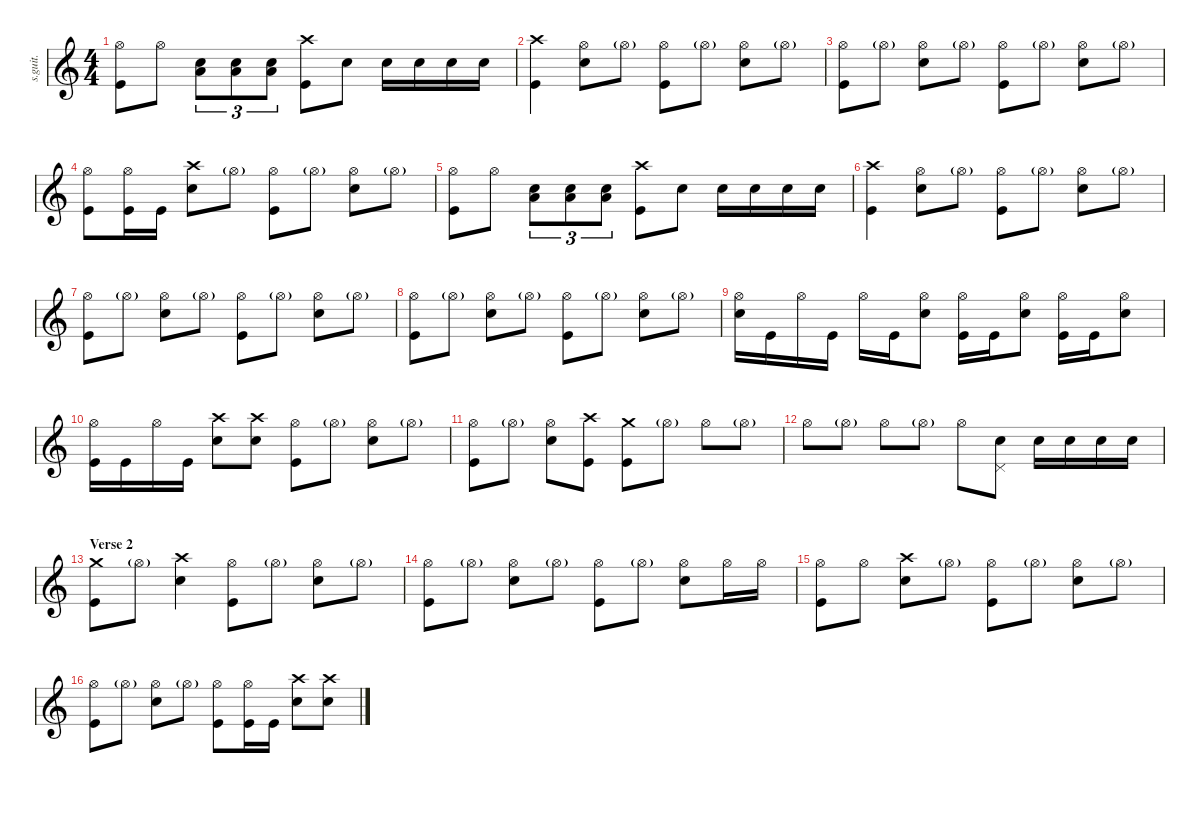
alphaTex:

\defaultSystemsLayout 4
\hideDynamics
\bracketExtendMode nobrackets
\track ("Lars Ulrich" "s.guit.") {instrument percussion}
\staff {score}
\articulation defaults
\ts (4 4)
\tempo (87 hide)
\clef g2
\ks c
("Hi-Hat (open)" "Kick (hit)").8{lyrics (0 "") lyrics (1 "") lyrics (2 "") lyrics (3 "") lyrics (4 "") dy f} "Hi-Hat (open)".8{lyrics (0 "") lyrics (1 "") lyrics (2 "") lyrics (3 "") lyrics (4 "")} ("Low Floor Tom (hit)" "Snare (hit) 2").8{tu (3 2) lyrics (0 "") lyrics (1 "") lyrics (2 "") lyrics (3 "") lyrics (4 "")} ("Low Floor Tom (hit)" "Snare (hit) 2").8{tu (3 2) lyrics (0 "") lyrics (1 "") lyrics (2 "") lyrics (3 "") lyrics (4 "")} ("Low Floor Tom (hit)" "Snare (hit) 2").8{tu (3 2) lyrics (0 "") lyrics (1 "") lyrics (2 "") lyrics (3 "") lyrics (4 "")} ("Kick (hit)" "Crash high (hit)").8{lyrics (0 "") lyrics (1 "") lyrics (2 "") lyrics (3 "") lyrics (4 "")} "Snare (hit) 2".8{lyrics (0 "") lyrics (1 "") lyrics (2 "") lyrics (3 "") lyrics (4 "")} "Snare (hit) 2".16{lyrics (0 "") lyrics (1 "") lyrics (2 "") lyrics (3 "") lyrics (4 "")} "Snare (hit) 2".16{lyrics (0 "") lyrics (1 "") lyrics (2 "") lyrics (3 "") lyrics (4 "")} "Snare (hit) 2".16{lyrics (0 "") lyrics (1 "") lyrics (2 "") lyrics (3 "") lyrics (4 "")} "Snare (hit) 2".16{lyrics (0 "") lyrics (1 "") lyrics (2 "") lyrics (3 "") lyrics (4 "")} |
\tempo (89 hide)
("Crash high (hit)" "Kick (hit)").4{lyrics (0 "") lyrics (1 "") lyrics (2 "") lyrics (3 "") lyrics (4 "")} ("Hi-Hat (open)" "Snare (hit) 2").8{lyrics (0 "") lyrics (1 "") lyrics (2 "") lyrics (3 "") lyrics (4 "")} "Hi-Hat (open)"{g}.8{lyrics (0 "") lyrics (1 "") lyrics (2 "") lyrics (3 "") lyrics (4 "") dy p} ("Hi-Hat (open)" "Kick (hit)").8{lyrics (0 "") lyrics (1 "") lyrics (2 "") lyrics (3 "") lyrics (4 "") dy f} "Hi-Hat (open)"{g}.8{lyrics (0 "") lyrics (1 "") lyrics (2 "") lyrics (3 "") lyrics (4 "") dy p} ("Hi-Hat (open)" "Snare (hit) 2").8{lyrics (0 "") lyrics (1 "") lyrics (2 "") lyrics (3 "") lyrics (4 "") dy f} "Hi-Hat (open)"{g}.8{lyrics (0 "") lyrics (1 "") lyrics (2 "") lyrics (3 "") lyrics (4 "") dy p} |
("Hi-Hat (open)" "Kick (hit)").8{lyrics (0 "") lyrics (1 "") lyrics (2 "") lyrics (3 "") lyrics (4 "") dy f} "Hi-Hat (open)"{g}.8{lyrics (0 "") lyrics (1 "") lyrics (2 "") lyrics (3 "") lyrics (4 "") dy p} ("Hi-Hat (open)" "Snare (hit) 2").8{lyrics (0 "") lyrics (1 "") lyrics (2 "") lyrics (3 "") lyrics (4 "") dy f} "Hi-Hat (open)"{g}.8{lyrics (0 "") lyrics (1 "") lyrics (2 "") lyrics (3 "") lyrics (4 "") dy p} ("Hi-Hat (open)" "Kick (hit)").8{lyrics (0 "") lyrics (1 "") lyrics (2 "") lyrics (3 "") lyrics (4 "") dy f} "Hi-Hat (open)"{g}.8{lyrics (0 "") lyrics (1 "") lyrics (2 "") lyrics (3 "") lyrics (4 "") dy p} ("Hi-Hat (open)" "Snare (hit) 2").8{lyrics (0 "") lyrics (1 "") lyrics (2 "") lyrics (3 "") lyrics (4 "") dy f} "Hi-Hat (open)"{g}.8{lyrics (0 "") lyrics (1 "") lyrics (2 "") lyrics (3 "") lyrics (4 "") dy p} |
\tempo (90 hide)
("Hi-Hat (open)" "Kick (hit)").8{lyrics (0 "") lyrics (1 "") lyrics (2 "") lyrics (3 "") lyrics (4 "") dy f} ("Hi-Hat (open)" "Kick (hit)").16{lyrics (0 "") lyrics (1 "") lyrics (2 "") lyrics (3 "") lyrics (4 "")} "Kick (hit)".16{lyrics (0 "") lyrics (1 "") lyrics (2 "") lyrics (3 "") lyrics (4 "")} ("Crash high (hit)" "Snare (hit) 2").8{lyrics (0 "") lyrics (1 "") lyrics (2 "") lyrics (3 "") lyrics (4 "")} "Hi-Hat (open)"{g}.8{lyrics (0 "") lyrics (1 "") lyrics (2 "") lyrics (3 "") lyrics (4 "") dy p} ("Hi-Hat (open)" "Kick (hit)").8{lyrics (0 "") lyrics (1 "") lyrics (2 "") lyrics (3 "") lyrics (4 "") dy f} "Hi-Hat (open)"{g}.8{lyrics (0 "") lyrics (1 "") lyrics (2 "") lyrics (3 "") lyrics (4 "") dy p} ("Hi-Hat (open)" "Snare (hit) 2").8{lyrics (0 "") lyrics (1 "") lyrics (2 "") lyrics (3 "") lyrics (4 "") dy f} "Hi-Hat (open)"{g}.8{lyrics (0 "") lyrics (1 "") lyrics (2 "") lyrics (3 "") lyrics (4 "") dy p} |
\tempo (86 hide)
("Hi-Hat (open)" "Kick (hit)").8{lyrics (0 "") lyrics (1 "") lyrics (2 "") lyrics (3 "") lyrics (4 "") dy f} "Hi-Hat (open)".8{lyrics (0 "") lyrics (1 "") lyrics (2 "") lyrics (3 "") lyrics (4 "")} ("Low Floor Tom (hit)" "Snare (hit) 2").8{tu (3 2) lyrics (0 "") lyrics (1 "") lyrics (2 "") lyrics (3 "") lyrics (4 "")} ("Low Floor Tom (hit)" "Snare (hit) 2").8{tu (3 2) lyrics (0 "") lyrics (1 "") lyrics (2 "") lyrics (3 "") lyrics (4 "")} ("Low Floor Tom (hit)" "Snare (hit) 2").8{tu (3 2) lyrics (0 "") lyrics (1 "") lyrics (2 "") lyrics (3 "") lyrics (4 "")} ("Kick (hit)" "Crash high (hit)").8{lyrics (0 "") lyrics (1 "") lyrics (2 "") lyrics (3 "") lyrics (4 "")} "Snare (hit) 2".8{lyrics (0 "") lyrics (1 "") lyrics (2 "") lyrics (3 "") lyrics (4 "")} "Snare (hit) 2".16{lyrics (0 "") lyrics (1 "") lyrics (2 "") lyrics (3 "") lyrics (4 "")} "Snare (hit) 2".16{lyrics (0 "") lyrics (1 "") lyrics (2 "") lyrics (3 "") lyrics (4 "")} "Snare (hit) 2".16{lyrics (0 "") lyrics (1 "") lyrics (2 "") lyrics (3 "") lyrics (4 "")} "Snare (hit) 2".16{lyrics (0 "") lyrics (1 "") lyrics (2 "") lyrics (3 "") lyrics (4 "")} |
\tempo (87 hide)
("Crash high (hit)" "Kick (hit)").4{lyrics (0 "") lyrics (1 "") lyrics (2 "") lyrics (3 "") lyrics (4 "")} ("Hi-Hat (open)" "Snare (hit) 2").8{lyrics (0 "") lyrics (1 "") lyrics (2 "") lyrics (3 "") lyrics (4 "")} "Hi-Hat (open)"{g}.8{lyrics (0 "") lyrics (1 "") lyrics (2 "") lyrics (3 "") lyrics (4 "") dy p} ("Hi-Hat (open)" "Kick (hit)").8{lyrics (0 "") lyrics (1 "") lyrics (2 "") lyrics (3 "") lyrics (4 "") dy f} "Hi-Hat (open)"{g}.8{lyrics (0 "") lyrics (1 "") lyrics (2 "") lyrics (3 "") lyrics (4 "") dy p} ("Hi-Hat (open)" "Snare (hit) 2").8{lyrics (0 "") lyrics (1 "") lyrics (2 "") lyrics (3 "") lyrics (4 "") dy f} "Hi-Hat (open)"{g}.8{lyrics (0 "") lyrics (1 "") lyrics (2 "") lyrics (3 "") lyrics (4 "") dy p} |
\tempo (89 hide)
("Hi-Hat (open)" "Kick (hit)").8{lyrics (0 "") lyrics (1 "") lyrics (2 "") lyrics (3 "") lyrics (4 "") dy f} "Hi-Hat (open)"{g}.8{lyrics (0 "") lyrics (1 "") lyrics (2 "") lyrics (3 "") lyrics (4 "") dy p} ("Hi-Hat (open)" "Snare (hit) 2").8{lyrics (0 "") lyrics (1 "") lyrics (2 "") lyrics (3 "") lyrics (4 "") dy f} "Hi-Hat (open)"{g}.8{lyrics (0 "") lyrics (1 "") lyrics (2 "") lyrics (3 "") lyrics (4 "") dy p} ("Hi-Hat (open)" "Kick (hit)").8{lyrics (0 "") lyrics (1 "") lyrics (2 "") lyrics (3 "") lyrics (4 "") dy f} "Hi-Hat (open)"{g}.8{lyrics (0 "") lyrics (1 "") lyrics (2 "") lyrics (3 "") lyrics (4 "") dy p} ("Hi-Hat (open)" "Snare (hit) 2").8{lyrics (0 "") lyrics (1 "") lyrics (2 "") lyrics (3 "") lyrics (4 "") dy f} "Hi-Hat (open)"{g}.8{lyrics (0 "") lyrics (1 "") lyrics (2 "") lyrics (3 "") lyrics (4 "") dy p} |
\tempo (91 hide)
("Hi-Hat (open)" "Kick (hit)").8{lyrics (0 "") lyrics (1 "") lyrics (2 "") lyrics (3 "") lyrics (4 "") dy f} "Hi-Hat (open)"{g}.8{lyrics (0 "") lyrics (1 "") lyrics (2 "") lyrics (3 "") lyrics (4 "") dy p} ("Hi-Hat (open)" "Snare (hit) 2").8{lyrics (0 "") lyrics (1 "") lyrics (2 "") lyrics (3 "") lyrics (4 "") dy f} "Hi-Hat (open)"{g}.8{lyrics (0 "") lyrics (1 "") lyrics (2 "") lyrics (3 "") lyrics (4 "") dy p} ("Hi-Hat (open)" "Kick (hit)").8{lyrics (0 "") lyrics (1 "") lyrics (2 "") lyrics (3 "") lyrics (4 "") dy f} "Hi-Hat (open)"{g}.8{lyrics (0 "") lyrics (1 "") lyrics (2 "") lyrics (3 "") lyrics (4 "") dy p} ("Hi-Hat (open)" "Snare (hit) 2").8{lyrics (0 "") lyrics (1 "") lyrics (2 "") lyrics (3 "") lyrics (4 "") dy f} "Hi-Hat (open)"{g}.8{lyrics (0 "") lyrics (1 "") lyrics (2 "") lyrics (3 "") lyrics (4 "") dy p} |
\tempo (90 hide)
("Hi-Hat (open)" "Snare (hit) 2").16{lyrics (0 "") lyrics (1 "") lyrics (2 "") lyrics (3 "") lyrics (4 "") dy f} "Kick (hit)".16{lyrics (0 "") lyrics (1 "") lyrics (2 "") lyrics (3 "") lyrics (4 "")} "Hi-Hat (open)".16{lyrics (0 "") lyrics (1 "") lyrics (2 "") lyrics (3 "") lyrics (4 "")} "Kick (hit)".16{lyrics (0 "") lyrics (1 "") lyrics (2 "") lyrics (3 "") lyrics (4 "")} "Hi-Hat (open)".16{lyrics (0 "") lyrics (1 "") lyrics (2 "") lyrics (3 "") lyrics (4 "")} "Kick (hit)".16{lyrics (0 "") lyrics (1 "") lyrics (2 "") lyrics (3 "") lyrics (4 "")} ("Hi-Hat (open)" "Snare (hit) 2").8{lyrics (0 "") lyrics (1 "") lyrics (2 "") lyrics (3 "") lyrics (4 "")} ("Hi-Hat (open)" "Kick (hit)").16{lyrics (0 "") lyrics (1 "") lyrics (2 "") lyrics (3 "") lyrics (4 "")} "Kick (hit)".16{lyrics (0 "") lyrics (1 "") lyrics (2 "") lyrics (3 "") lyrics (4 "")} ("Hi-Hat (open)" "Snare (hit) 2").8{lyrics (0 "") lyrics (1 "") lyrics (2 "") lyrics (3 "") lyrics (4 "")} ("Hi-Hat (open)" "Kick (hit)").16{lyrics (0 "") lyrics (1 "") lyrics (2 "") lyrics (3 "") lyrics (4 "")} "Kick (hit)".16{lyrics (0 "") lyrics (1 "") lyrics (2 "") lyrics (3 "") lyrics (4 "")} ("Hi-Hat (open)" "Snare (hit) 2").8{lyrics (0 "") lyrics (1 "") lyrics (2 "") lyrics (3 "") lyrics (4 "")} |
("Hi-Hat (open)" "Kick (hit)").16{lyrics (0 "") lyrics (1 "") lyrics (2 "") lyrics (3 "") lyrics (4 "")} "Kick (hit)".16{lyrics (0 "") lyrics (1 "") lyrics (2 "") lyrics (3 "") lyrics (4 "")} "Hi-Hat (open)".16{lyrics (0 "") lyrics (1 "") lyrics (2 "") lyrics (3 "") lyrics (4 "")} "Kick (hit)".16{lyrics (0 "") lyrics (1 "") lyrics (2 "") lyrics (3 "") lyrics (4 "")} ("Crash high (hit)" "Snare (hit) 2").8{lyrics (0 "") lyrics (1 "") lyrics (2 "") lyrics (3 "") lyrics (4 "")} ("Crash high (hit)" "Snare (hit) 2").8{lyrics (0 "") lyrics (1 "") lyrics (2 "") lyrics (3 "") lyrics (4 "")} ("Hi-Hat (open)" "Kick (hit)").8{lyrics (0 "") lyrics (1 "") lyrics (2 "") lyrics (3 "") lyrics (4 "")} "Hi-Hat (open)"{g}.8{lyrics (0 "") lyrics (1 "") lyrics (2 "") lyrics (3 "") lyrics (4 "") dy p} ("Hi-Hat (open)" "Snare (hit) 2").8{lyrics (0 "") lyrics (1 "") lyrics (2 "") lyrics (3 "") lyrics (4 "") dy f} "Hi-Hat (open)"{g}.8{lyrics (0 "") lyrics (1 "") lyrics (2 "") lyrics (3 "") lyrics (4 "") dy p} |
\tempo (87 hide)
("Hi-Hat (open)" "Kick (hit)").8{lyrics (0 "") lyrics (1 "") lyrics (2 "") lyrics (3 "") lyrics (4 "") dy f} "Hi-Hat (open)"{g}.8{lyrics (0 "") lyrics (1 "") lyrics (2 "") lyrics (3 "") lyrics (4 "") dy p} ("Hi-Hat (open)" "Snare (hit) 2").8{lyrics (0 "") lyrics (1 "") lyrics (2 "") lyrics (3 "") lyrics (4 "") dy f} ("Crash high (hit)" "Kick (hit)").8{lyrics (0 "") lyrics (1 "") lyrics (2 "") lyrics (3 "") lyrics (4 "")} ("Crash medium (hit)" "Kick (hit)").8{lyrics (0 "") lyrics (1 "") lyrics (2 "") lyrics (3 "") lyrics (4 "")} "Hi-Hat (open)"{g}.8{lyrics (0 "") lyrics (1 "") lyrics (2 "") lyrics (3 "") lyrics (4 "") dy p} "Hi-Hat (open)".8{lyrics (0 "") lyrics (1 "") lyrics (2 "") lyrics (3 "") lyrics (4 "") dy f} "Hi-Hat (open)"{g}.8{lyrics (0 "") lyrics (1 "") lyrics (2 "") lyrics (3 "") lyrics (4 "") dy p} |
\tempo (90 hide)
"Hi-Hat (open)".8{lyrics (0 "") lyrics (1 "") lyrics (2 "") lyrics (3 "") lyrics (4 "") dy f} "Hi-Hat (open)"{g}.8{lyrics (0 "") lyrics (1 "") lyrics (2 "") lyrics (3 "") lyrics (4 "") dy p} "Hi-Hat (open)".8{lyrics (0 "") lyrics (1 "") lyrics (2 "") lyrics (3 "") lyrics (4 "") dy f} "Hi-Hat (open)"{g}.8{lyrics (0 "") lyrics (1 "") lyrics (2 "") lyrics (3 "") lyrics (4 "") dy p} "Hi-Hat (open)".8{lyrics (0 "") lyrics (1 "") lyrics (2 "") lyrics (3 "") lyrics (4 "") dy f} ("Pedal Hi-Hat (hit)" "Snare (hit) 2").8{lyrics (0 "") lyrics (1 "") lyrics (2 "") lyrics (3 "") lyrics (4 "")} "Snare (hit) 2".16{lyrics (0 "") lyrics (1 "") lyrics (2 "") lyrics (3 "") lyrics (4 "")} "Snare (hit) 2".16{lyrics (0 "") lyrics (1 "") lyrics (2 "") lyrics (3 "") lyrics (4 "")} "Snare (hit) 2".16{lyrics (0 "") lyrics (1 "") lyrics (2 "") lyrics (3 "") lyrics (4 "")} "Snare (hit) 2".16{lyrics (0 "") lyrics (1 "") lyrics (2 "") lyrics (3 "") lyrics (4 "")} |
\section ("" "Verse 2")
\tempo (88 hide)
("Crash medium (hit)" "Kick (hit)").8{lyrics (0 "") lyrics (1 "") lyrics (2 "") lyrics (3 "") lyrics (4 "")} "Hi-Hat (open)"{g}.8{lyrics (0 "") lyrics (1 "") lyrics (2 "") lyrics (3 "") lyrics (4 "") dy p} ("Crash high (hit)" "Snare (hit) 2").4{lyrics (0 "") lyrics (1 "") lyrics (2 "") lyrics (3 "") lyrics (4 "") dy f} ("Hi-Hat (open)" "Kick (hit)").8{lyrics (0 "") lyrics (1 "") lyrics (2 "") lyrics (3 "") lyrics (4 "")} "Hi-Hat (open)"{g}.8{lyrics (0 "") lyrics (1 "") lyrics (2 "") lyrics (3 "") lyrics (4 "") dy p} ("Hi-Hat (open)" "Snare (hit) 2").8{lyrics (0 "") lyrics (1 "") lyrics (2 "") lyrics (3 "") lyrics (4 "") dy f} "Hi-Hat (open)"{g}.8{lyrics (0 "") lyrics (1 "") lyrics (2 "") lyrics (3 "") lyrics (4 "") dy p} |
\tempo (90 hide)
("Hi-Hat (open)" "Kick (hit)").8{lyrics (0 "") lyrics (1 "") lyrics (2 "") lyrics (3 "") lyrics (4 "") dy f} "Hi-Hat (open)"{g}.8{lyrics (0 "") lyrics (1 "") lyrics (2 "") lyrics (3 "") lyrics (4 "") dy p} ("Hi-Hat (open)" "Snare (hit) 2").8{lyrics (0 "") lyrics (1 "") lyrics (2 "") lyrics (3 "") lyrics (4 "") dy f} "Hi-Hat (open)"{g}.8{lyrics (0 "") lyrics (1 "") lyrics (2 "") lyrics (3 "") lyrics (4 "") dy p} ("Hi-Hat (open)" "Kick (hit)").8{lyrics (0 "") lyrics (1 "") lyrics (2 "") lyrics (3 "") lyrics (4 "") dy f} "Hi-Hat (open)"{g}.8{lyrics (0 "") lyrics (1 "") lyrics (2 "") lyrics (3 "") lyrics (4 "") dy p} ("Hi-Hat (open)" "Snare (hit) 2").8{lyrics (0 "") lyrics (1 "") lyrics (2 "") lyrics (3 "") lyrics (4 "") dy f} "Hi-Hat (open)".16{lyrics (0 "") lyrics (1 "") lyrics (2 "") lyrics (3 "") lyrics (4 "")} "Hi-Hat (open)".16{lyrics (0 "") lyrics (1 "") lyrics (2 "") lyrics (3 "") lyrics (4 "")} |
\tempo (89 hide)
("Hi-Hat (open)" "Kick (hit)").8{lyrics (0 "") lyrics (1 "") lyrics (2 "") lyrics (3 "") lyrics (4 "")} "Hi-Hat (open)".8{lyrics (0 "") lyrics (1 "") lyrics (2 "") lyrics (3 "") lyrics (4 "")} ("Crash high (hit)" "Snare (hit) 2").8{lyrics (0 "") lyrics (1 "") lyrics (2 "") lyrics (3 "") lyrics (4 "")} "Hi-Hat (open)"{g}.8{lyrics (0 "") lyrics (1 "") lyrics (2 "") lyrics (3 "") lyrics (4 "") dy p} ("Hi-Hat (open)" "Kick (hit)").8{lyrics (0 "") lyrics (1 "") lyrics (2 "") lyrics (3 "") lyrics (4 "") dy f} "Hi-Hat (open)"{g}.8{lyrics (0 "") lyrics (1 "") lyrics (2 "") lyrics (3 "") lyrics (4 "") dy p} ("Hi-Hat (open)" "Snare (hit) 2").8{lyrics (0 "") lyrics (1 "") lyrics (2 "") lyrics (3 "") lyrics (4 "") dy f} "Hi-Hat (open)"{g}.8{lyrics (0 "") lyrics (1 "") lyrics (2 "") lyrics (3 "") lyrics (4 "") dy p} |
("Hi-Hat (open)" "Kick (hit)").8{lyrics (0 "") lyrics (1 "") lyrics (2 "") lyrics (3 "") lyrics (4 "") dy f} "Hi-Hat (open)"{g}.8{lyrics (0 "") lyrics (1 "") lyrics (2 "") lyrics (3 "") lyrics (4 "") dy p} ("Hi-Hat (open)" "Snare (hit) 2").8{lyrics (0 "") lyrics (1 "") lyrics (2 "") lyrics (3 "") lyrics (4 "") dy f} "Hi-Hat (open)"{g}.8{lyrics (0 "") lyrics (1 "") lyrics (2 "") lyrics (3 "") lyrics (4 "") dy p} ("Hi-Hat (open)" "Kick (hit)").8{lyrics (0 "") lyrics (1 "") lyrics (2 "") lyrics (3 "") lyrics (4 "") dy f} ("Hi-Hat (open)" "Kick (hit)").16{lyrics (0 "") lyrics (1 "") lyrics (2 "") lyrics (3 "") lyrics (4 "")} "Kick (hit)".16{lyrics (0 "") lyrics (1 "") lyrics (2 "") lyrics (3 "") lyrics (4 "")} ("Crash high (hit)" "Snare (hit) 2").8{lyrics (0 "") lyrics (1 "") lyrics (2 "") lyrics (3 "") lyrics (4 "")} ("Crash high (hit)" "Snare (hit) 2").8{lyrics (0 "") lyrics (1 "") lyrics (2 "") lyrics (3 "") lyrics (4 "")}
